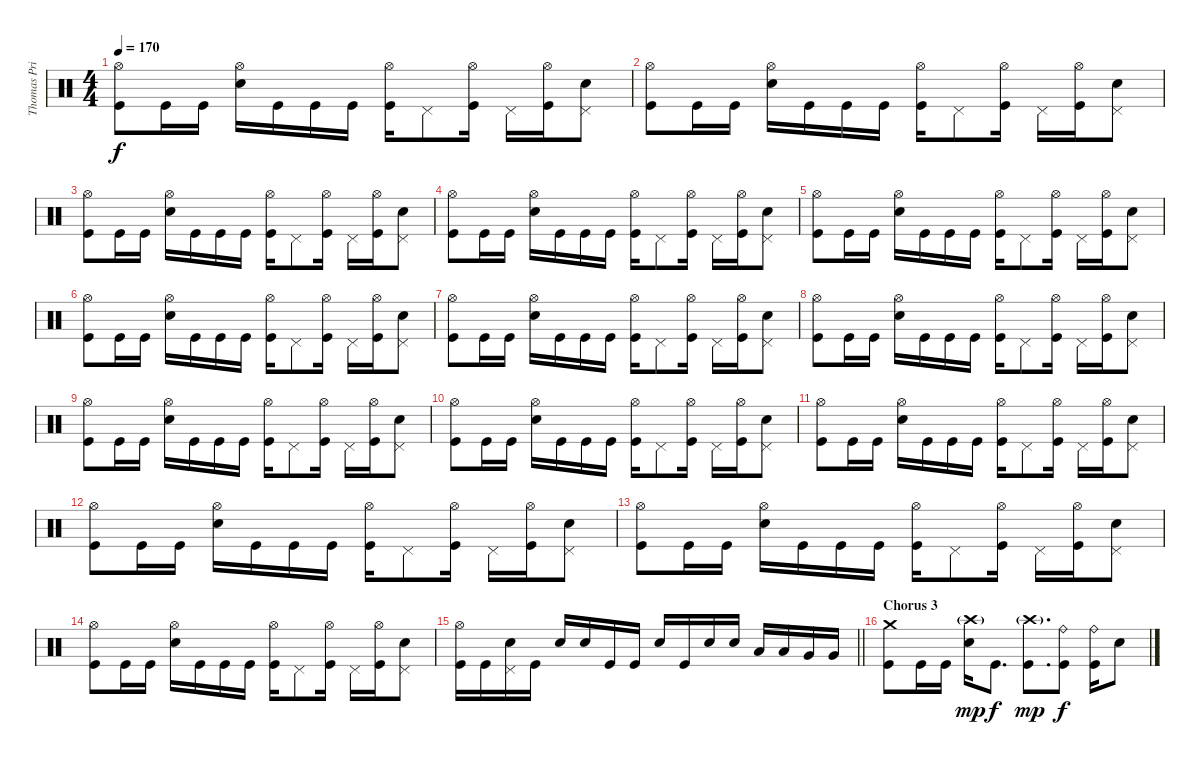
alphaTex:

\track ("Thomas Pridgen [Drum]" "Thomas Pri") {instrument percussion}
\staff {score}
\articulation defaults
\ts (4 4)
\tempo 170
\clef neutral
\ks c
("Hi-Hat (open)" "Kick (hit)").8{dy f} "Kick (hit)".16 "Kick (hit)".16 ("Hi-Hat (open)" "Electric Snare (hit)").16 "Kick (hit)".16 "Kick (hit)".16 "Kick (hit)".16 ("Hi-Hat (open)" "Kick (hit)").16 "Pedal Hi-Hat (hit)".8 ("Hi-Hat (open)" "Kick (hit)").16 "Pedal Hi-Hat (hit)".16 ("Hi-Hat (open)" "Kick (hit)").16 ("Pedal Hi-Hat (hit)" "Electric Snare (hit)").8 |
("Hi-Hat (open)" "Kick (hit)").8 "Kick (hit)".16 "Kick (hit)".16 ("Hi-Hat (open)" "Electric Snare (hit)").16 "Kick (hit)".16 "Kick (hit)".16 "Kick (hit)".16 ("Hi-Hat (open)" "Kick (hit)").16 "Pedal Hi-Hat (hit)".8 ("Hi-Hat (open)" "Kick (hit)").16 "Pedal Hi-Hat (hit)".16 ("Hi-Hat (open)" "Kick (hit)").16 ("Pedal Hi-Hat (hit)" "Electric Snare (hit)").8 |
("Hi-Hat (open)" "Kick (hit)").8 "Kick (hit)".16 "Kick (hit)".16 ("Hi-Hat (open)" "Electric Snare (hit)").16 "Kick (hit)".16 "Kick (hit)".16 "Kick (hit)".16 ("Hi-Hat (open)" "Kick (hit)").16 "Pedal Hi-Hat (hit)".8 ("Hi-Hat (open)" "Kick (hit)").16 "Pedal Hi-Hat (hit)".16 ("Hi-Hat (open)" "Kick (hit)").16 ("Pedal Hi-Hat (hit)" "Electric Snare (hit)").8 |
("Hi-Hat (open)" "Kick (hit)").8 "Kick (hit)".16 "Kick (hit)".16 ("Hi-Hat (open)" "Electric Snare (hit)").16 "Kick (hit)".16 "Kick (hit)".16 "Kick (hit)".16 ("Hi-Hat (open)" "Kick (hit)").16 "Pedal Hi-Hat (hit)".8 ("Hi-Hat (open)" "Kick (hit)").16 "Pedal Hi-Hat (hit)".16 ("Hi-Hat (open)" "Kick (hit)").16 ("Pedal Hi-Hat (hit)" "Electric Snare (hit)").8 |
("Hi-Hat (open)" "Kick (hit)").8 "Kick (hit)".16 "Kick (hit)".16 ("Hi-Hat (open)" "Electric Snare (hit)").16 "Kick (hit)".16 "Kick (hit)".16 "Kick (hit)".16 ("Hi-Hat (open)" "Kick (hit)").16 "Pedal Hi-Hat (hit)".8 ("Hi-Hat (open)" "Kick (hit)").16 "Pedal Hi-Hat (hit)".16 ("Hi-Hat (open)" "Kick (hit)").16 ("Pedal Hi-Hat (hit)" "Electric Snare (hit)").8 |
("Hi-Hat (open)" "Kick (hit)").8 "Kick (hit)".16 "Kick (hit)".16 ("Hi-Hat (open)" "Electric Snare (hit)").16 "Kick (hit)".16 "Kick (hit)".16 "Kick (hit)".16 ("Hi-Hat (open)" "Kick (hit)").16 "Pedal Hi-Hat (hit)".8 ("Hi-Hat (open)" "Kick (hit)").16 "Pedal Hi-Hat (hit)".16 ("Hi-Hat (open)" "Kick (hit)").16 ("Pedal Hi-Hat (hit)" "Electric Snare (hit)").8 |
("Hi-Hat (open)" "Kick (hit)").8 "Kick (hit)".16 "Kick (hit)".16 ("Hi-Hat (open)" "Electric Snare (hit)").16 "Kick (hit)".16 "Kick (hit)".16 "Kick (hit)".16 ("Hi-Hat (open)" "Kick (hit)").16 "Pedal Hi-Hat (hit)".8 ("Hi-Hat (open)" "Kick (hit)").16 "Pedal Hi-Hat (hit)".16 ("Hi-Hat (open)" "Kick (hit)").16 ("Pedal Hi-Hat (hit)" "Electric Snare (hit)").8 |
("Hi-Hat (open)" "Kick (hit)").8 "Kick (hit)".16 "Kick (hit)".16 ("Hi-Hat (open)" "Electric Snare (hit)").16 "Kick (hit)".16 "Kick (hit)".16 "Kick (hit)".16 ("Hi-Hat (open)" "Kick (hit)").16 "Pedal Hi-Hat (hit)".8 ("Hi-Hat (open)" "Kick (hit)").16 "Pedal Hi-Hat (hit)".16 ("Hi-Hat (open)" "Kick (hit)").16 ("Pedal Hi-Hat (hit)" "Electric Snare (hit)").8 |
("Hi-Hat (open)" "Kick (hit)").8 "Kick (hit)".16 "Kick (hit)".16 ("Hi-Hat (open)" "Electric Snare (hit)").16 "Kick (hit)".16 "Kick (hit)".16 "Kick (hit)".16 ("Hi-Hat (open)" "Kick (hit)").16 "Pedal Hi-Hat (hit)".8 ("Hi-Hat (open)" "Kick (hit)").16 "Pedal Hi-Hat (hit)".16 ("Hi-Hat (open)" "Kick (hit)").16 ("Pedal Hi-Hat (hit)" "Electric Snare (hit)").8 |
("Hi-Hat (open)" "Kick (hit)").8 "Kick (hit)".16 "Kick (hit)".16 ("Hi-Hat (open)" "Electric Snare (hit)").16 "Kick (hit)".16 "Kick (hit)".16 "Kick (hit)".16 ("Hi-Hat (open)" "Kick (hit)").16 "Pedal Hi-Hat (hit)".8 ("Hi-Hat (open)" "Kick (hit)").16 "Pedal Hi-Hat (hit)".16 ("Hi-Hat (open)" "Kick (hit)").16 ("Pedal Hi-Hat (hit)" "Electric Snare (hit)").8 |
("Hi-Hat (open)" "Kick (hit)").8 "Kick (hit)".16 "Kick (hit)".16 ("Hi-Hat (open)" "Electric Snare (hit)").16 "Kick (hit)".16 "Kick (hit)".16 "Kick (hit)".16 ("Hi-Hat (open)" "Kick (hit)").16 "Pedal Hi-Hat (hit)".8 ("Hi-Hat (open)" "Kick (hit)").16 "Pedal Hi-Hat (hit)".16 ("Hi-Hat (open)" "Kick (hit)").16 ("Pedal Hi-Hat (hit)" "Electric Snare (hit)").8 |
("Hi-Hat (open)" "Kick (hit)").8 "Kick (hit)".16 "Kick (hit)".16 ("Hi-Hat (open)" "Electric Snare (hit)").16 "Kick (hit)".16 "Kick (hit)".16 "Kick (hit)".16 ("Hi-Hat (open)" "Kick (hit)").16 "Pedal Hi-Hat (hit)".8 ("Hi-Hat (open)" "Kick (hit)").16 "Pedal Hi-Hat (hit)".16 ("Hi-Hat (open)" "Kick (hit)").16 ("Pedal Hi-Hat (hit)" "Electric Snare (hit)").8 |
("Hi-Hat (open)" "Kick (hit)").8 "Kick (hit)".16 "Kick (hit)".16 ("Hi-Hat (open)" "Electric Snare (hit)").16 "Kick (hit)".16 "Kick (hit)".16 "Kick (hit)".16 ("Hi-Hat (open)" "Kick (hit)").16 "Pedal Hi-Hat (hit)".8 ("Hi-Hat (open)" "Kick (hit)").16 "Pedal Hi-Hat (hit)".16 ("Hi-Hat (open)" "Kick (hit)").16 ("Pedal Hi-Hat (hit)" "Electric Snare (hit)").8 |
("Hi-Hat (open)" "Kick (hit)").8 "Kick (hit)".16 "Kick (hit)".16 ("Hi-Hat (open)" "Electric Snare (hit)").16 "Kick (hit)".16 "Kick (hit)".16 "Kick (hit)".16 ("Hi-Hat (open)" "Kick (hit)").16 "Pedal Hi-Hat (hit)".8 ("Hi-Hat (open)" "Kick (hit)").16 "Pedal Hi-Hat (hit)".16 ("Hi-Hat (open)" "Kick (hit)").16 ("Pedal Hi-Hat (hit)" "Electric Snare (hit)").8 |
\barLineRight lightlight
("Hi-Hat (open)" "Kick (hit)").16 "Kick (hit)".16 ("Pedal Hi-Hat (hit)" "Electric Snare (hit)").16 "Kick (hit)".16 "Electric Snare (hit)".16 "Electric Snare (hit)".16 "Kick (hit)".16 "Kick (hit)".16 "Electric Snare (hit)".16 "Kick (hit)".16 "Electric Snare (hit)".16 "Electric Snare (hit)".16 "Low Tom (hit)".16 "Low Tom (hit)".16 "Very Low Tom (hit)".16 "Very Low Tom (hit)".16 |
\section ("" "Chorus 3")
("Crash medium (hit)" "Kick (hit)").8 "Kick (hit)".16 "Kick (hit)".16 ("Crash high (hit)"{g} "Electric Snare (hit)").16{dy mp} "Kick (hit)".8{d dy f} ("Crash high (hit)"{g} "Kick (hit)").8{d dy mp} ("Ride (bell)" "Kick (hit)").8{dy f} ("Ride (bell)" "Kick (hit)").16 "Electric Snare (hit)".8
